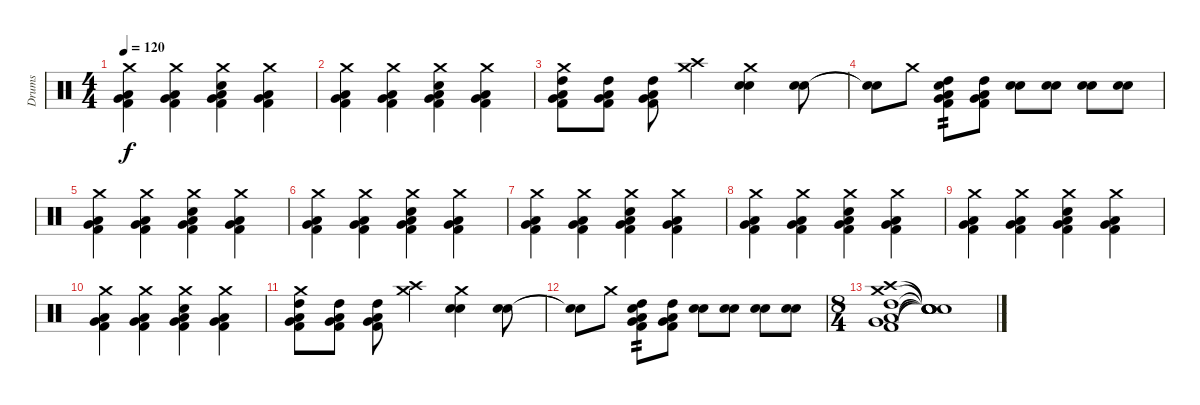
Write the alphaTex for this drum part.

\track ("Drums" "Drums") {instrument percussion}
\staff {score}
\articulation defaults
\ts (4 4)
\tempo 120
\clef neutral
\ks c
("Crash medium (hit)" "Low Tom (hit)" "Very Low Tom (hit)" "Kick (hit) 2").4{dy f} ("Crash medium (hit)" "Low Tom (hit)" "Very Low Tom (hit)" "Kick (hit) 2").4 ("Crash medium (hit)" "Snare (hit) 2" "Low Tom (hit)" "Very Low Tom (hit)" "Kick (hit) 2").4 ("Crash medium (hit)" "Low Tom (hit)" "Very Low Tom (hit)" "Kick (hit) 2").4 |
("Crash medium (hit)" "Low Tom (hit)" "Very Low Tom (hit)" "Kick (hit) 2").4 ("Crash medium (hit)" "Low Tom (hit)" "Very Low Tom (hit)" "Kick (hit) 2").4 ("Crash medium (hit)" "Snare (hit) 2" "Low Tom (hit)" "Very Low Tom (hit)" "Kick (hit) 2").4 ("Crash medium (hit)" "Low Tom (hit)" "Very Low Tom (hit)" "Kick (hit) 2").4 |
("Crash medium (hit)" "High Tom (hit)" "Low Tom (hit)" "Very Low Tom (hit)" "Kick (hit) 2").8 ("High Tom (hit)" "Low Tom (hit)" "Very Low Tom (hit)" "Kick (hit) 2").8 ("High Tom (hit)" "Low Tom (hit)" "Very Low Tom (hit)" "Kick (hit) 2").8 ("Crash medium (hit)" "Crash high (hit)").4 ("Crash medium (hit)" "Snare (hit) 2" "Electric Snare (hit)").4 ("Snare (hit) 2" "Electric Snare (hit)").8 |
("Snare (hit)"{t} "Snare (hit)"{t}).8 "Crash medium (hit)".8 ("Snare (hit) 2" "High Tom (hit)" "Low Tom (hit)" "Very Low Tom (hit)" "Kick (hit) 2").8{tp 2} ("High Tom (hit)" "Low Tom (hit)" "Very Low Tom (hit)" "Kick (hit) 2").8 ("Snare (hit) 2" "Electric Snare (hit)").8 ("Snare (hit) 2" "Electric Snare (hit)").8 ("Snare (hit) 2" "Electric Snare (hit)").8 ("Snare (hit) 2" "Electric Snare (hit)").8 |
("Crash medium (hit)" "Low Tom (hit)" "Very Low Tom (hit)" "Kick (hit) 2").4 ("Crash medium (hit)" "Low Tom (hit)" "Very Low Tom (hit)" "Kick (hit) 2").4 ("Crash medium (hit)" "Snare (hit) 2" "Low Tom (hit)" "Very Low Tom (hit)" "Kick (hit) 2").4 ("Crash medium (hit)" "Low Tom (hit)" "Very Low Tom (hit)" "Kick (hit) 2").4 |
("Crash medium (hit)" "Low Tom (hit)" "Very Low Tom (hit)" "Kick (hit) 2").4 ("Crash medium (hit)" "Low Tom (hit)" "Very Low Tom (hit)" "Kick (hit) 2").4 ("Crash medium (hit)" "Snare (hit) 2" "Low Tom (hit)" "Very Low Tom (hit)" "Kick (hit) 2").4 ("Crash medium (hit)" "Low Tom (hit)" "Very Low Tom (hit)" "Kick (hit) 2").4 |
("Crash medium (hit)" "Low Tom (hit)" "Very Low Tom (hit)" "Kick (hit) 2").4 ("Crash medium (hit)" "Low Tom (hit)" "Very Low Tom (hit)" "Kick (hit) 2").4 ("Crash medium (hit)" "Snare (hit) 2" "Low Tom (hit)" "Very Low Tom (hit)" "Kick (hit) 2").4 ("Crash medium (hit)" "Low Tom (hit)" "Very Low Tom (hit)" "Kick (hit) 2").4 |
("Crash medium (hit)" "Low Tom (hit)" "Very Low Tom (hit)" "Kick (hit) 2").4 ("Crash medium (hit)" "Low Tom (hit)" "Very Low Tom (hit)" "Kick (hit) 2").4 ("Crash medium (hit)" "Snare (hit) 2" "Low Tom (hit)" "Very Low Tom (hit)" "Kick (hit) 2").4 ("Crash medium (hit)" "Low Tom (hit)" "Very Low Tom (hit)" "Kick (hit) 2").4 |
("Crash medium (hit)" "Low Tom (hit)" "Very Low Tom (hit)" "Kick (hit) 2").4 ("Crash medium (hit)" "Low Tom (hit)" "Very Low Tom (hit)" "Kick (hit) 2").4 ("Crash medium (hit)" "Snare (hit) 2" "Low Tom (hit)" "Very Low Tom (hit)" "Kick (hit) 2").4 ("Crash medium (hit)" "Low Tom (hit)" "Very Low Tom (hit)" "Kick (hit) 2").4 |
("Crash medium (hit)" "Low Tom (hit)" "Very Low Tom (hit)" "Kick (hit) 2").4 ("Crash medium (hit)" "Low Tom (hit)" "Very Low Tom (hit)" "Kick (hit) 2").4 ("Crash medium (hit)" "Snare (hit) 2" "Low Tom (hit)" "Very Low Tom (hit)" "Kick (hit) 2").4 ("Crash medium (hit)" "Low Tom (hit)" "Very Low Tom (hit)" "Kick (hit) 2").4 |
("Crash medium (hit)" "High Tom (hit)" "Low Tom (hit)" "Very Low Tom (hit)" "Kick (hit) 2").8 ("High Tom (hit)" "Low Tom (hit)" "Very Low Tom (hit)" "Kick (hit) 2").8 ("High Tom (hit)" "Low Tom (hit)" "Very Low Tom (hit)" "Kick (hit) 2").8 ("Crash medium (hit)" "Crash high (hit)").4 ("Crash medium (hit)" "Snare (hit) 2" "Electric Snare (hit)").4 ("Snare (hit) 2" "Electric Snare (hit)").8 |
("Snare (hit)"{t} "Snare (hit)"{t}).8 "Crash medium (hit)".8 ("Snare (hit) 2" "High Tom (hit)" "Low Tom (hit)" "Very Low Tom (hit)" "Kick (hit) 2").8{tp 2} ("High Tom (hit)" "Low Tom (hit)" "Very Low Tom (hit)" "Kick (hit) 2").8 ("Snare (hit) 2" "Electric Snare (hit)").8 ("Snare (hit) 2" "Electric Snare (hit)").8 ("Snare (hit) 2" "Electric Snare (hit)").8 ("Snare (hit) 2" "Electric Snare (hit)").8 |
\ts (8 4)
("Crash medium (hit)" "Crash high (hit)" "High Tom (hit)" "Low Tom (hit)" "Very Low Tom (hit)" "Kick (hit) 2").1 ("Snare (hit)"{t} "Snare (hit)"{t} "Snare (hit)"{t} "Snare (hit)"{t} "Snare (hit)"{t} "Snare (hit)"{t}).1
